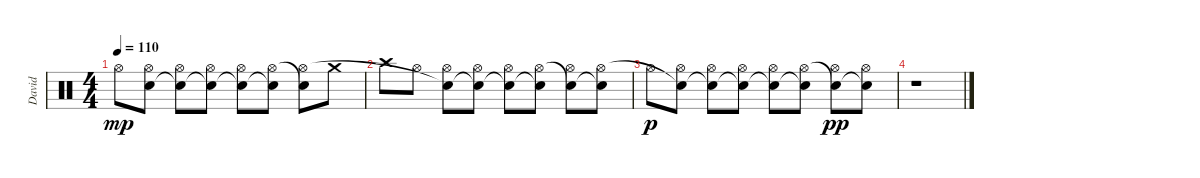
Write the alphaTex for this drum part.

\track ("David" "David") {instrument percussion}
\staff {score}
\articulation defaults
\ts (4 4)
\tempo 110
\clef neutral
\ks c "Hi-Hat (open)".8{dy mp}
("Hi-Hat (open)" "Snare (hit)"{t}).8 ("Hi-Hat (open)" "Snare (hit)"{t}).8 ("Hi-Hat (open)" "Snare (hit)"{t}).8 ("Hi-Hat (open)" "Snare (hit)"{t}).8 ("Hi-Hat (open)" "Snare (hit)"{t}).8 ("Snare (hit)"{t} "Hi-Hat (open)").8 "Crash medium (hit)".8 |
"Crash high (hit)".8 "Hi-Hat (open)".8 ("Hi-Hat (open)" "Snare (hit)"{t}).8 ("Hi-Hat (open)" "Snare (hit)"{t}).8 ("Hi-Hat (open)" "Snare (hit)"{t}).8 ("Hi-Hat (open)" "Snare (hit)"{t}).8 ("Snare (hit)"{t} "Hi-Hat (open)").8 ("Snare (hit)"{t} "Hi-Hat (open)").8 |
"Hi-Hat (open)".8{dy p} ("Hi-Hat (open)" "Snare (hit)"{t}).8 ("Hi-Hat (open)" "Snare (hit)"{t}).8 ("Hi-Hat (open)" "Snare (hit)"{t}).8 ("Hi-Hat (open)" "Snare (hit)"{t}).8 ("Hi-Hat (open)" "Snare (hit)"{t}).8 ("Snare (hit)"{t} "Hi-Hat (open)").8{dy pp} ("Snare (hit)"{t} "Hi-Hat (open)").8 |
r.1
